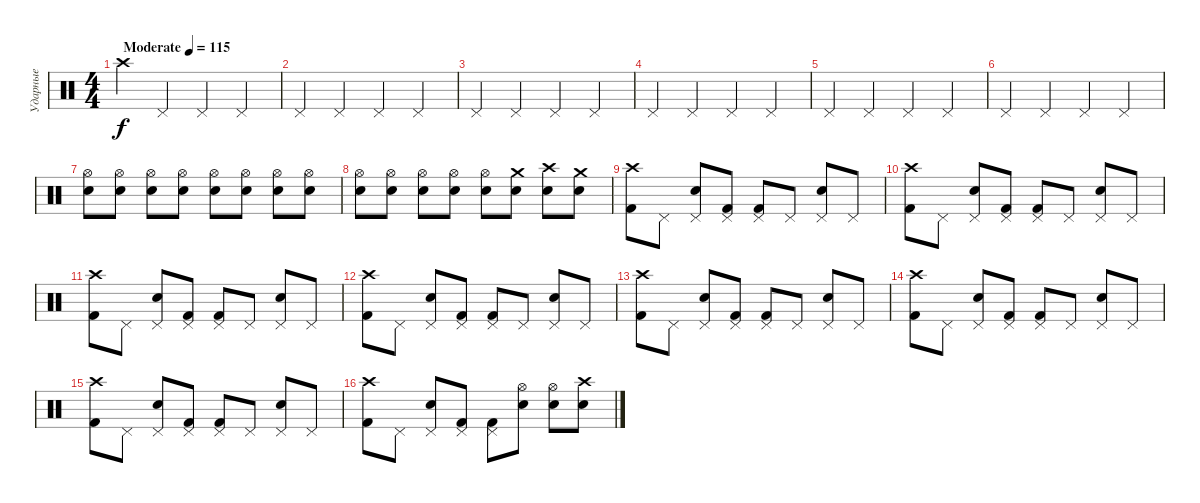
\track ("Ударные" "Ударные") {instrument percussion}
\staff {score}
\articulation defaults
\ts (4 4)
\tempo (115 "Moderate")
\clef neutral
\ks c "Crash high (hit)".4{dy f} "Pedal Hi-Hat (hit)".4 "Pedal Hi-Hat (hit)".4 "Pedal Hi-Hat (hit)".4
|
"Pedal Hi-Hat (hit)".4 "Pedal Hi-Hat (hit)".4 "Pedal Hi-Hat (hit)".4 "Pedal Hi-Hat (hit)".4 |
"Pedal Hi-Hat (hit)".4 "Pedal Hi-Hat (hit)".4 "Pedal Hi-Hat (hit)".4 "Pedal Hi-Hat (hit)".4 |
"Pedal Hi-Hat (hit)".4 "Pedal Hi-Hat (hit)".4 "Pedal Hi-Hat (hit)".4 "Pedal Hi-Hat (hit)".4 |
"Pedal Hi-Hat (hit)".4 "Pedal Hi-Hat (hit)".4 "Pedal Hi-Hat (hit)".4 "Pedal Hi-Hat (hit)".4 |
"Pedal Hi-Hat (hit)".4 "Pedal Hi-Hat (hit)".4 "Pedal Hi-Hat (hit)".4 "Pedal Hi-Hat (hit)".4 |
("Hi-Hat (open)" "Snare (hit) 2").8 ("Hi-Hat (open)" "Snare (hit) 2").8 ("Hi-Hat (open)" "Snare (hit) 2").8 ("Hi-Hat (open)" "Snare (hit) 2").8 ("Hi-Hat (open)" "Snare (hit) 2").8 ("Hi-Hat (open)" "Snare (hit) 2").8 ("Hi-Hat (open)" "Snare (hit) 2").8 ("Hi-Hat (open)" "Snare (hit) 2").8 |
("Hi-Hat (open)" "Snare (hit) 2").8 ("Hi-Hat (open)" "Snare (hit) 2").8 ("Hi-Hat (open)" "Snare (hit) 2").8 ("Hi-Hat (open)" "Snare (hit) 2").8 ("Hi-Hat (open)" "Snare (hit) 2").8 ("Crash medium (hit)" "Snare (hit) 2").8 ("Crash high (hit)" "Snare (hit) 2").8 ("Crash medium (hit)" "Snare (hit) 2").8 |
("Crash high (hit)" "Kick (hit) 2").8 "Pedal Hi-Hat (hit)".8 ("Pedal Hi-Hat (hit)" "Electric Snare (hit)").8 ("Pedal Hi-Hat (hit)" "Kick (hit) 2").8 ("Pedal Hi-Hat (hit)" "Kick (hit) 2").8 "Pedal Hi-Hat (hit)".8 ("Pedal Hi-Hat (hit)" "Electric Snare (hit)").8 "Pedal Hi-Hat (hit)".8 |
("Crash high (hit)" "Kick (hit) 2").8 "Pedal Hi-Hat (hit)".8 ("Pedal Hi-Hat (hit)" "Electric Snare (hit)").8 ("Pedal Hi-Hat (hit)" "Kick (hit) 2").8 ("Pedal Hi-Hat (hit)" "Kick (hit) 2").8 "Pedal Hi-Hat (hit)".8 ("Pedal Hi-Hat (hit)" "Electric Snare (hit)").8 "Pedal Hi-Hat (hit)".8 |
("Crash high (hit)" "Kick (hit) 2").8 "Pedal Hi-Hat (hit)".8 ("Pedal Hi-Hat (hit)" "Electric Snare (hit)").8 ("Pedal Hi-Hat (hit)" "Kick (hit) 2").8 ("Pedal Hi-Hat (hit)" "Kick (hit) 2").8 "Pedal Hi-Hat (hit)".8 ("Pedal Hi-Hat (hit)" "Electric Snare (hit)").8 "Pedal Hi-Hat (hit)".8 |
("Crash high (hit)" "Kick (hit) 2").8 "Pedal Hi-Hat (hit)".8 ("Pedal Hi-Hat (hit)" "Electric Snare (hit)").8 ("Pedal Hi-Hat (hit)" "Kick (hit) 2").8 ("Pedal Hi-Hat (hit)" "Kick (hit) 2").8 "Pedal Hi-Hat (hit)".8 ("Pedal Hi-Hat (hit)" "Electric Snare (hit)").8 "Pedal Hi-Hat (hit)".8 |
("Crash high (hit)" "Kick (hit) 2").8 "Pedal Hi-Hat (hit)".8 ("Pedal Hi-Hat (hit)" "Electric Snare (hit)").8 ("Pedal Hi-Hat (hit)" "Kick (hit) 2").8 ("Pedal Hi-Hat (hit)" "Kick (hit) 2").8 "Pedal Hi-Hat (hit)".8 ("Pedal Hi-Hat (hit)" "Electric Snare (hit)").8 "Pedal Hi-Hat (hit)".8 |
("Crash high (hit)" "Kick (hit) 2").8 "Pedal Hi-Hat (hit)".8 ("Pedal Hi-Hat (hit)" "Electric Snare (hit)").8 ("Pedal Hi-Hat (hit)" "Kick (hit) 2").8 ("Pedal Hi-Hat (hit)" "Kick (hit) 2").8 "Pedal Hi-Hat (hit)".8 ("Pedal Hi-Hat (hit)" "Electric Snare (hit)").8 "Pedal Hi-Hat (hit)".8 |
("Crash high (hit)" "Kick (hit) 2").8 "Pedal Hi-Hat (hit)".8 ("Pedal Hi-Hat (hit)" "Electric Snare (hit)").8 ("Pedal Hi-Hat (hit)" "Kick (hit) 2").8 ("Pedal Hi-Hat (hit)" "Kick (hit) 2").8 "Pedal Hi-Hat (hit)".8 ("Pedal Hi-Hat (hit)" "Electric Snare (hit)").8 "Pedal Hi-Hat (hit)".8 |
("Crash high (hit)" "Kick (hit) 2").8 "Pedal Hi-Hat (hit)".8 ("Pedal Hi-Hat (hit)" "Electric Snare (hit)").8 ("Pedal Hi-Hat (hit)" "Kick (hit) 2").8 ("Pedal Hi-Hat (hit)" "Kick (hit) 2").8 ("Hi-Hat (open)" "Electric Snare (hit)").8 ("Hi-Hat (open)" "Electric Snare (hit)").8 ("Crash high (hit)" "Electric Snare (hit)").8
